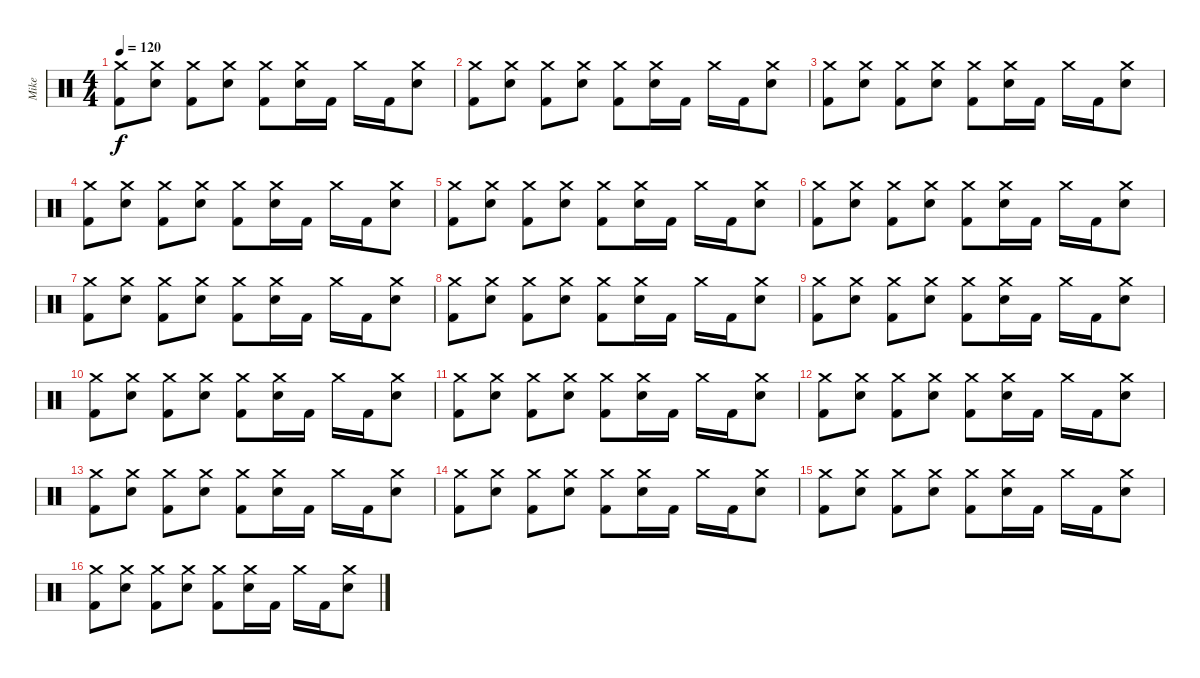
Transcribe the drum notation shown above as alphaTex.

\track ("Mike" "Mike") {instrument percussion}
\staff {score}
\articulation defaults
\ts (4 4)
\tempo 120
\clef neutral
\ks c
("Crash medium (hit)" "Kick (hit) 2").8{dy f} ("Crash medium (hit)" "Electric Snare (hit)").8 ("Crash medium (hit)" "Kick (hit) 2").8 ("Crash medium (hit)" "Electric Snare (hit)").8 ("Crash medium (hit)" "Kick (hit) 2").8 ("Crash medium (hit)" "Electric Snare (hit)").16 "Kick (hit) 2".16 "Crash medium (hit)".16 "Kick (hit) 2".16 ("Crash medium (hit)" "Electric Snare (hit)").8 |
("Crash medium (hit)" "Kick (hit) 2").8 ("Crash medium (hit)" "Electric Snare (hit)").8 ("Crash medium (hit)" "Kick (hit) 2").8 ("Crash medium (hit)" "Electric Snare (hit)").8 ("Crash medium (hit)" "Kick (hit) 2").8 ("Crash medium (hit)" "Electric Snare (hit)").16 "Kick (hit) 2".16 "Crash medium (hit)".16 "Kick (hit) 2".16 ("Crash medium (hit)" "Electric Snare (hit)").8 |
("Crash medium (hit)" "Kick (hit) 2").8 ("Crash medium (hit)" "Electric Snare (hit)").8 ("Crash medium (hit)" "Kick (hit) 2").8 ("Crash medium (hit)" "Electric Snare (hit)").8 ("Crash medium (hit)" "Kick (hit) 2").8 ("Crash medium (hit)" "Electric Snare (hit)").16 "Kick (hit) 2".16 "Crash medium (hit)".16 "Kick (hit) 2".16 ("Crash medium (hit)" "Electric Snare (hit)").8 |
("Crash medium (hit)" "Kick (hit) 2").8 ("Crash medium (hit)" "Electric Snare (hit)").8 ("Crash medium (hit)" "Kick (hit) 2").8 ("Crash medium (hit)" "Electric Snare (hit)").8 ("Crash medium (hit)" "Kick (hit) 2").8 ("Crash medium (hit)" "Electric Snare (hit)").16 "Kick (hit) 2".16 "Crash medium (hit)".16 "Kick (hit) 2".16 ("Crash medium (hit)" "Electric Snare (hit)").8 |
("Crash medium (hit)" "Kick (hit) 2").8 ("Crash medium (hit)" "Electric Snare (hit)").8 ("Crash medium (hit)" "Kick (hit) 2").8 ("Crash medium (hit)" "Electric Snare (hit)").8 ("Crash medium (hit)" "Kick (hit) 2").8 ("Crash medium (hit)" "Electric Snare (hit)").16 "Kick (hit) 2".16 "Crash medium (hit)".16 "Kick (hit) 2".16 ("Crash medium (hit)" "Electric Snare (hit)").8 |
("Crash medium (hit)" "Kick (hit) 2").8 ("Crash medium (hit)" "Electric Snare (hit)").8 ("Crash medium (hit)" "Kick (hit) 2").8 ("Crash medium (hit)" "Electric Snare (hit)").8 ("Crash medium (hit)" "Kick (hit) 2").8 ("Crash medium (hit)" "Electric Snare (hit)").16 "Kick (hit) 2".16 "Crash medium (hit)".16 "Kick (hit) 2".16 ("Crash medium (hit)" "Electric Snare (hit)").8 |
("Crash medium (hit)" "Kick (hit) 2").8 ("Crash medium (hit)" "Electric Snare (hit)").8 ("Crash medium (hit)" "Kick (hit) 2").8 ("Crash medium (hit)" "Electric Snare (hit)").8 ("Crash medium (hit)" "Kick (hit) 2").8 ("Crash medium (hit)" "Electric Snare (hit)").16 "Kick (hit) 2".16 "Crash medium (hit)".16 "Kick (hit) 2".16 ("Crash medium (hit)" "Electric Snare (hit)").8 |
("Crash medium (hit)" "Kick (hit) 2").8 ("Crash medium (hit)" "Electric Snare (hit)").8 ("Crash medium (hit)" "Kick (hit) 2").8 ("Crash medium (hit)" "Electric Snare (hit)").8 ("Crash medium (hit)" "Kick (hit) 2").8 ("Crash medium (hit)" "Electric Snare (hit)").16 "Kick (hit) 2".16 "Crash medium (hit)".16 "Kick (hit) 2".16 ("Crash medium (hit)" "Electric Snare (hit)").8 |
("Crash medium (hit)" "Kick (hit) 2").8 ("Crash medium (hit)" "Electric Snare (hit)").8 ("Crash medium (hit)" "Kick (hit) 2").8 ("Crash medium (hit)" "Electric Snare (hit)").8 ("Crash medium (hit)" "Kick (hit) 2").8 ("Crash medium (hit)" "Electric Snare (hit)").16 "Kick (hit) 2".16 "Crash medium (hit)".16 "Kick (hit) 2".16 ("Crash medium (hit)" "Electric Snare (hit)").8 |
("Crash medium (hit)" "Kick (hit) 2").8 ("Crash medium (hit)" "Electric Snare (hit)").8 ("Crash medium (hit)" "Kick (hit) 2").8 ("Crash medium (hit)" "Electric Snare (hit)").8 ("Crash medium (hit)" "Kick (hit) 2").8 ("Crash medium (hit)" "Electric Snare (hit)").16 "Kick (hit) 2".16 "Crash medium (hit)".16 "Kick (hit) 2".16 ("Crash medium (hit)" "Electric Snare (hit)").8 |
("Crash medium (hit)" "Kick (hit) 2").8 ("Crash medium (hit)" "Electric Snare (hit)").8 ("Crash medium (hit)" "Kick (hit) 2").8 ("Crash medium (hit)" "Electric Snare (hit)").8 ("Crash medium (hit)" "Kick (hit) 2").8 ("Crash medium (hit)" "Electric Snare (hit)").16 "Kick (hit) 2".16 "Crash medium (hit)".16 "Kick (hit) 2".16 ("Crash medium (hit)" "Electric Snare (hit)").8 |
("Crash medium (hit)" "Kick (hit) 2").8 ("Crash medium (hit)" "Electric Snare (hit)").8 ("Crash medium (hit)" "Kick (hit) 2").8 ("Crash medium (hit)" "Electric Snare (hit)").8 ("Crash medium (hit)" "Kick (hit) 2").8 ("Crash medium (hit)" "Electric Snare (hit)").16 "Kick (hit) 2".16 "Crash medium (hit)".16 "Kick (hit) 2".16 ("Crash medium (hit)" "Electric Snare (hit)").8 |
("Crash medium (hit)" "Kick (hit) 2").8 ("Crash medium (hit)" "Electric Snare (hit)").8 ("Crash medium (hit)" "Kick (hit) 2").8 ("Crash medium (hit)" "Electric Snare (hit)").8 ("Crash medium (hit)" "Kick (hit) 2").8 ("Crash medium (hit)" "Electric Snare (hit)").16 "Kick (hit) 2".16 "Crash medium (hit)".16 "Kick (hit) 2".16 ("Crash medium (hit)" "Electric Snare (hit)").8 |
("Crash medium (hit)" "Kick (hit) 2").8 ("Crash medium (hit)" "Electric Snare (hit)").8 ("Crash medium (hit)" "Kick (hit) 2").8 ("Crash medium (hit)" "Electric Snare (hit)").8 ("Crash medium (hit)" "Kick (hit) 2").8 ("Crash medium (hit)" "Electric Snare (hit)").16 "Kick (hit) 2".16 "Crash medium (hit)".16 "Kick (hit) 2".16 ("Crash medium (hit)" "Electric Snare (hit)").8 |
("Crash medium (hit)" "Kick (hit) 2").8 ("Crash medium (hit)" "Electric Snare (hit)").8 ("Crash medium (hit)" "Kick (hit) 2").8 ("Crash medium (hit)" "Electric Snare (hit)").8 ("Crash medium (hit)" "Kick (hit) 2").8 ("Crash medium (hit)" "Electric Snare (hit)").16 "Kick (hit) 2".16 "Crash medium (hit)".16 "Kick (hit) 2".16 ("Crash medium (hit)" "Electric Snare (hit)").8 |
("Crash medium (hit)" "Kick (hit) 2").8 ("Crash medium (hit)" "Electric Snare (hit)").8 ("Crash medium (hit)" "Kick (hit) 2").8 ("Crash medium (hit)" "Electric Snare (hit)").8 ("Crash medium (hit)" "Kick (hit) 2").8 ("Crash medium (hit)" "Electric Snare (hit)").16 "Kick (hit) 2".16 "Crash medium (hit)".16 "Kick (hit) 2".16 ("Crash medium (hit)" "Electric Snare (hit)").8
